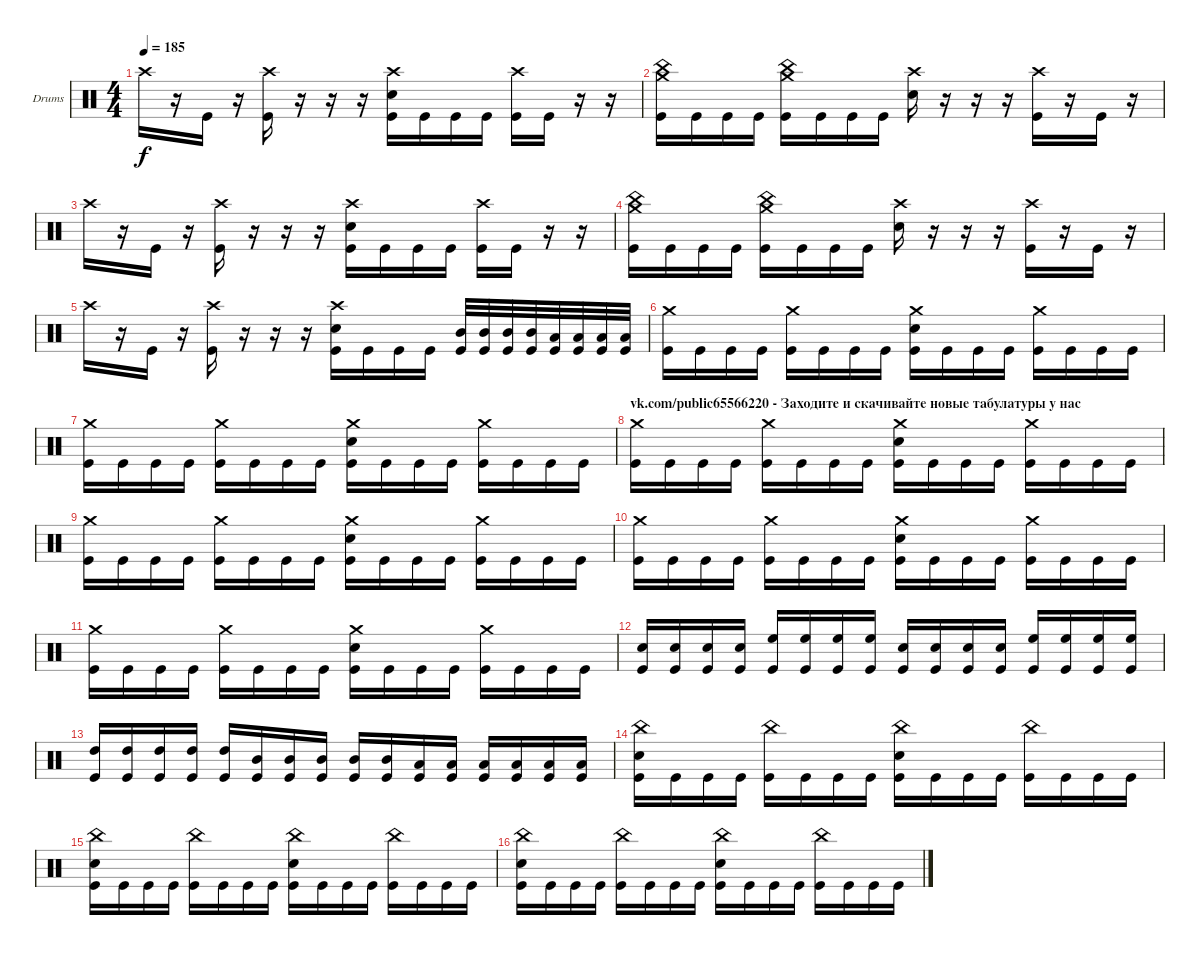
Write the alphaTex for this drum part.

\bracketExtendMode groupsimilarinstruments
\firstSystemTrackNameOrientation horizontal
\otherSystemsTrackNameOrientation horizontal
\track ("Drumkit" "Drums") {instrument percussion}
\staff {score}
\articulation defaults
\ts (4 4)
\tempo 185
\clef neutral
\ks c "Crash high (hit)".16{dy f}
r.16 "Kick (hit)".16 r.16 ("Crash high (hit)" "Kick (hit)").16 r.16 r.16 r.16 ("Crash high (hit)" "Snare (hit) 2" "Kick (hit)").16 "Kick (hit)".16 "Kick (hit)".16 "Kick (hit)".16 ("Crash high (hit)" "Kick (hit)").16 "Kick (hit)".16 r.16 r.16 |
("Crash medium (hit)" "China (hit)" "Kick (hit)").16 "Kick (hit)".16 "Kick (hit)".16 "Kick (hit)".16 ("Crash medium (hit)" "China (hit)" "Kick (hit)").16 "Kick (hit)".16 "Kick (hit)".16 "Kick (hit)".16 ("Crash high (hit)" "Snare (hit) 2").16 r.16 r.16 r.16 ("Crash high (hit)" "Kick (hit)").16 r.16 "Kick (hit)".16 r.16 |
"Crash high (hit)".16 r.16 "Kick (hit)".16 r.16 ("Crash high (hit)" "Kick (hit)").16 r.16 r.16 r.16 ("Crash high (hit)" "Snare (hit) 2" "Kick (hit)").16 "Kick (hit)".16 "Kick (hit)".16 "Kick (hit)".16 ("Crash high (hit)" "Kick (hit)").16 "Kick (hit)".16 r.16 r.16 |
("Crash medium (hit)" "China (hit)" "Kick (hit)").16 "Kick (hit)".16 "Kick (hit)".16 "Kick (hit)".16 ("Crash medium (hit)" "China (hit)" "Kick (hit)").16 "Kick (hit)".16 "Kick (hit)".16 "Kick (hit)".16 ("Crash high (hit)" "Snare (hit) 2").16 r.16 r.16 r.16 ("Crash high (hit)" "Kick (hit)").16 r.16 "Kick (hit)".16 r.16 |
"Crash high (hit)".16 r.16 "Kick (hit)".16 r.16 ("Crash high (hit)" "Kick (hit)").16 r.16 r.16 r.16 ("Crash high (hit)" "Snare (hit) 2" "Kick (hit)").16 "Kick (hit)".16 "Kick (hit)".16 "Kick (hit)".16 ("Mid Tom (hit)" "Kick (hit)").32 ("Mid Tom (hit)" "Kick (hit)").32 ("Mid Tom (hit)" "Kick (hit)").32 ("Mid Tom (hit)" "Kick (hit)").32 ("Low Tom (hit)" "Kick (hit)").32 ("Low Tom (hit)" "Kick (hit)").32 ("Low Tom (hit)" "Kick (hit)").32 ("Low Tom (hit)" "Kick (hit)").32 |
("Crash medium (hit)" "Kick (hit)").16 "Kick (hit)".16 "Kick (hit)".16 "Kick (hit)".16 ("Crash medium (hit)" "Kick (hit)").16 "Kick (hit)".16 "Kick (hit)".16 "Kick (hit)".16 ("Crash medium (hit)" "Snare (hit) 2" "Kick (hit)").16 "Kick (hit)".16 "Kick (hit)".16 "Kick (hit)".16 ("Crash medium (hit)" "Kick (hit)").16 "Kick (hit)".16 "Kick (hit)".16 "Kick (hit)".16 |
("Crash medium (hit)" "Kick (hit)").16 "Kick (hit)".16 "Kick (hit)".16 "Kick (hit)".16 ("Crash medium (hit)" "Kick (hit)").16 "Kick (hit)".16 "Kick (hit)".16 "Kick (hit)".16 ("Crash medium (hit)" "Snare (hit) 2" "Kick (hit)").16 "Kick (hit)".16 "Kick (hit)".16 "Kick (hit)".16 ("Crash medium (hit)" "Kick (hit)").16 "Kick (hit)".16 "Kick (hit)".16 "Kick (hit)".16 |
\section ("" "vk.com/public65566220 - Заходите и скачивайте новые табулатуры у нас")
("Crash medium (hit)" "Kick (hit)").16 "Kick (hit)".16 "Kick (hit)".16 "Kick (hit)".16 ("Crash medium (hit)" "Kick (hit)").16 "Kick (hit)".16 "Kick (hit)".16 "Kick (hit)".16 ("Crash medium (hit)" "Snare (hit) 2" "Kick (hit)").16 "Kick (hit)".16 "Kick (hit)".16 "Kick (hit)".16 ("Crash medium (hit)" "Kick (hit)").16 "Kick (hit)".16 "Kick (hit)".16 "Kick (hit)".16 |
("Crash medium (hit)" "Kick (hit)").16 "Kick (hit)".16 "Kick (hit)".16 "Kick (hit)".16 ("Crash medium (hit)" "Kick (hit)").16 "Kick (hit)".16 "Kick (hit)".16 "Kick (hit)".16 ("Crash medium (hit)" "Snare (hit) 2" "Kick (hit)").16 "Kick (hit)".16 "Kick (hit)".16 "Kick (hit)".16 ("Crash medium (hit)" "Kick (hit)").16 "Kick (hit)".16 "Kick (hit)".16 "Kick (hit)".16 |
("Crash medium (hit)" "Kick (hit)").16 "Kick (hit)".16 "Kick (hit)".16 "Kick (hit)".16 ("Crash medium (hit)" "Kick (hit)").16 "Kick (hit)".16 "Kick (hit)".16 "Kick (hit)".16 ("Crash medium (hit)" "Snare (hit) 2" "Kick (hit)").16 "Kick (hit)".16 "Kick (hit)".16 "Kick (hit)".16 ("Crash medium (hit)" "Kick (hit)").16 "Kick (hit)".16 "Kick (hit)".16 "Kick (hit)".16 |
("Crash medium (hit)" "Kick (hit)").16 "Kick (hit)".16 "Kick (hit)".16 "Kick (hit)".16 ("Crash medium (hit)" "Kick (hit)").16 "Kick (hit)".16 "Kick (hit)".16 "Kick (hit)".16 ("Crash medium (hit)" "Snare (hit) 2" "Kick (hit)").16 "Kick (hit)".16 "Kick (hit)".16 "Kick (hit)".16 ("Crash medium (hit)" "Kick (hit)").16 "Kick (hit)".16 "Kick (hit)".16 "Kick (hit)".16 |
("Snare (hit) 2" "Kick (hit)").16 ("Snare (hit) 2" "Kick (hit)").16 ("Snare (hit) 2" "Kick (hit)").16 ("Snare (hit) 2" "Kick (hit)").16 ("High Floor Tom (hit)" "Kick (hit)").16 ("High Floor Tom (hit)" "Kick (hit)").16 ("High Floor Tom (hit)" "Kick (hit)").16 ("High Floor Tom (hit)" "Kick (hit)").16 ("Snare (hit) 2" "Kick (hit)").16 ("Snare (hit) 2" "Kick (hit)").16 ("Snare (hit) 2" "Kick (hit)").16 ("Snare (hit) 2" "Kick (hit)").16 ("High Floor Tom (hit)" "Kick (hit)").16 ("High Floor Tom (hit)" "Kick (hit)").16 ("High Floor Tom (hit)" "Kick (hit)").16 ("High Floor Tom (hit)" "Kick (hit)").16 |
("High Tom (hit)" "Kick (hit)").16 ("High Tom (hit)" "Kick (hit)").16 ("High Tom (hit)" "Kick (hit)").16 ("High Tom (hit)" "Kick (hit)").16 ("High Tom (hit)" "Kick (hit)").16 ("Mid Tom (hit)" "Kick (hit)").16 ("Mid Tom (hit)" "Kick (hit)").16 ("Mid Tom (hit)" "Kick (hit)").16 ("Mid Tom (hit)" "Kick (hit)").16 ("Mid Tom (hit)" "Kick (hit)").16 ("Low Tom (hit)" "Kick (hit)").16 ("Low Tom (hit)" "Kick (hit)").16 ("Low Tom (hit)" "Kick (hit)").16 ("Low Tom (hit)" "Kick (hit)").16 ("Low Tom (hit)" "Kick (hit)").16 ("Low Tom (hit)" "Kick (hit)").16 |
("China (hit)" "Snare (hit) 2" "Kick (hit)").16 "Kick (hit)".16 "Kick (hit)".16 "Kick (hit)".16 ("China (hit)" "Kick (hit)").16 "Kick (hit)".16 "Kick (hit)".16 "Kick (hit)".16 ("China (hit)" "Snare (hit) 2" "Kick (hit)").16 "Kick (hit)".16 "Kick (hit)".16 "Kick (hit)".16 ("China (hit)" "Kick (hit)").16 "Kick (hit)".16 "Kick (hit)".16 "Kick (hit)".16 |
("China (hit)" "Snare (hit) 2" "Kick (hit)").16 "Kick (hit)".16 "Kick (hit)".16 "Kick (hit)".16 ("China (hit)" "Kick (hit)").16 "Kick (hit)".16 "Kick (hit)".16 "Kick (hit)".16 ("China (hit)" "Snare (hit) 2" "Kick (hit)").16 "Kick (hit)".16 "Kick (hit)".16 "Kick (hit)".16 ("China (hit)" "Kick (hit)").16 "Kick (hit)".16 "Kick (hit)".16 "Kick (hit)".16 |
("China (hit)" "Snare (hit) 2" "Kick (hit)").16 "Kick (hit)".16 "Kick (hit)".16 "Kick (hit)".16 ("China (hit)" "Kick (hit)").16 "Kick (hit)".16 "Kick (hit)".16 "Kick (hit)".16 ("China (hit)" "Snare (hit) 2" "Kick (hit)").16 "Kick (hit)".16 "Kick (hit)".16 "Kick (hit)".16 ("China (hit)" "Kick (hit)").16 "Kick (hit)".16 "Kick (hit)".16 "Kick (hit)".16
